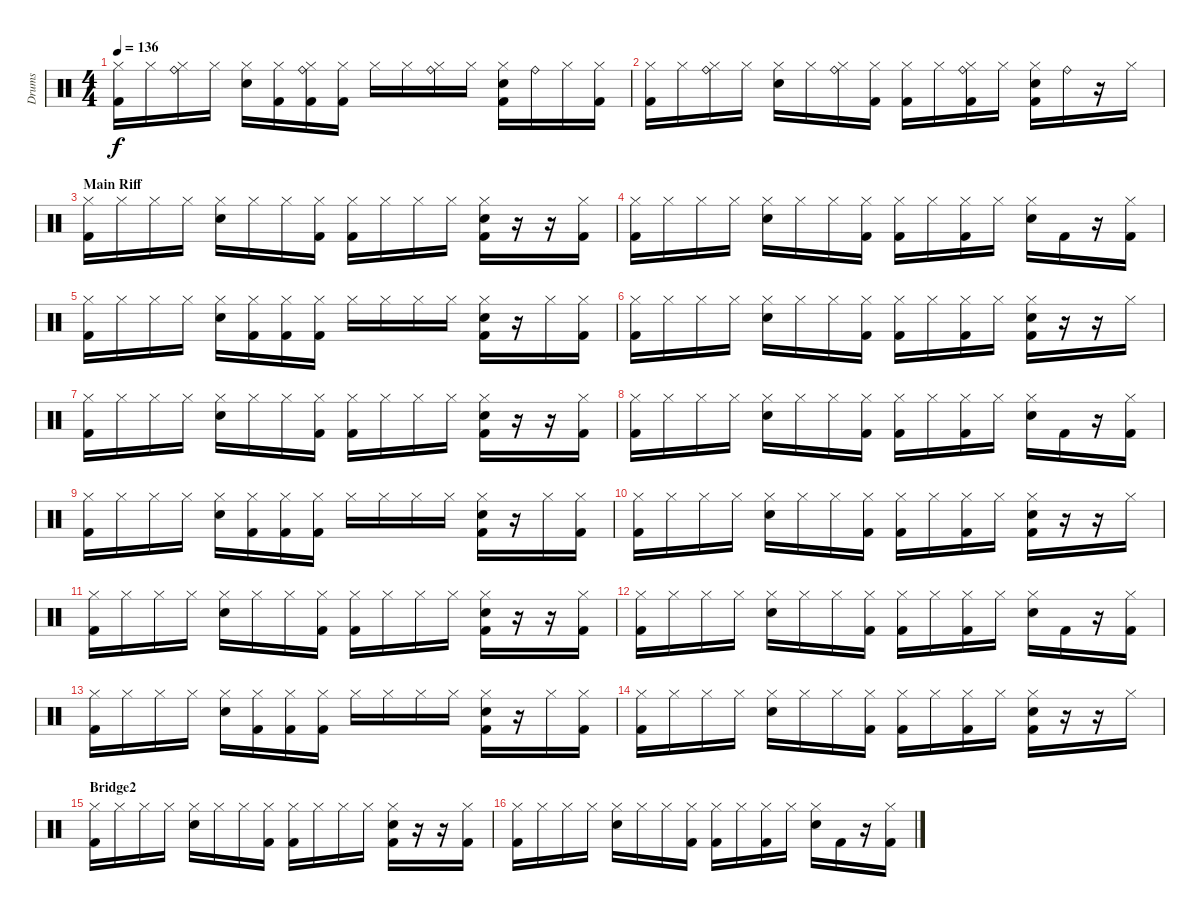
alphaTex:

\track ("Drums" "Drums") {instrument percussion}
\staff {score}
\articulation defaults
\ts (4 4)
\tempo 136
\clef neutral
\ks c
("Hi-Hat (closed)" "Kick (hit) 2").16{dy f} "Hi-Hat (closed)".16 ("Ride (bell)" "Hi-Hat (closed)").16 "Hi-Hat (closed)".16 ("Electric Snare (hit)" "Hi-Hat (closed)").16 ("Hi-Hat (closed)" "Kick (hit) 2").16 ("Ride (bell)" "Hi-Hat (closed)" "Kick (hit) 2").16 ("Hi-Hat (closed)" "Kick (hit) 2").16 "Hi-Hat (closed)".16 "Hi-Hat (closed)".16 ("Ride (bell)" "Hi-Hat (closed)").16 "Hi-Hat (closed)".16 ("Electric Snare (hit)" "Hi-Hat (closed)" "Kick (hit) 2").16 "Ride (bell)".16 "Hi-Hat (closed)".16 ("Hi-Hat (closed)" "Kick (hit) 2").16 |
("Hi-Hat (closed)" "Kick (hit) 2").16 "Hi-Hat (closed)".16 ("Ride (bell)" "Hi-Hat (closed)").16 "Hi-Hat (closed)".16 ("Electric Snare (hit)" "Hi-Hat (closed)").16 "Hi-Hat (closed)".16 ("Ride (bell)" "Hi-Hat (closed)").16 ("Hi-Hat (closed)" "Kick (hit) 2").16 ("Hi-Hat (closed)" "Kick (hit) 2").16 "Hi-Hat (closed)".16 ("Ride (bell)" "Hi-Hat (closed)" "Kick (hit) 2").16 "Hi-Hat (closed)".16 ("Electric Snare (hit)" "Hi-Hat (closed)" "Kick (hit) 2").16 "Ride (bell)".16 r.16 "Hi-Hat (closed)".16 |
\section ("" "Main Riff")
("Hi-Hat (closed)" "Kick (hit) 2").16 "Hi-Hat (closed)".16 "Hi-Hat (closed)".16 "Hi-Hat (closed)".16 ("Electric Snare (hit)" "Hi-Hat (closed)").16 "Hi-Hat (closed)".16 "Hi-Hat (closed)".16 ("Hi-Hat (closed)" "Kick (hit) 2").16 ("Hi-Hat (closed)" "Kick (hit) 2").16 "Hi-Hat (closed)".16 "Hi-Hat (closed)".16 "Hi-Hat (closed)".16 ("Electric Snare (hit)" "Hi-Hat (closed)" "Kick (hit) 2").16 r.16 r.16 ("Hi-Hat (closed)" "Kick (hit) 2").16 |
("Hi-Hat (closed)" "Kick (hit) 2").16 "Hi-Hat (closed)".16 "Hi-Hat (closed)".16 "Hi-Hat (closed)".16 ("Electric Snare (hit)" "Hi-Hat (closed)").16 "Hi-Hat (closed)".16 "Hi-Hat (closed)".16 ("Hi-Hat (closed)" "Kick (hit) 2").16 ("Hi-Hat (closed)" "Kick (hit) 2").16 "Hi-Hat (closed)".16 ("Hi-Hat (closed)" "Kick (hit) 2").16 "Hi-Hat (closed)".16 ("Electric Snare (hit)" "Hi-Hat (closed)").16 "Kick (hit) 2".16 r.16 ("Hi-Hat (closed)" "Kick (hit) 2").16 |
("Hi-Hat (closed)" "Kick (hit) 2").16 "Hi-Hat (closed)".16 "Hi-Hat (closed)".16 "Hi-Hat (closed)".16 ("Electric Snare (hit)" "Hi-Hat (closed)").16 ("Hi-Hat (closed)" "Kick (hit) 2").16 ("Hi-Hat (closed)" "Kick (hit) 2").16 ("Hi-Hat (closed)" "Kick (hit) 2").16 "Hi-Hat (closed)".16 "Hi-Hat (closed)".16 "Hi-Hat (closed)".16 "Hi-Hat (closed)".16 ("Electric Snare (hit)" "Hi-Hat (closed)" "Kick (hit) 2").16 r.16 "Hi-Hat (closed)".16 ("Hi-Hat (closed)" "Kick (hit) 2").16 |
("Hi-Hat (closed)" "Kick (hit) 2").16 "Hi-Hat (closed)".16 "Hi-Hat (closed)".16 "Hi-Hat (closed)".16 ("Electric Snare (hit)" "Hi-Hat (closed)").16 "Hi-Hat (closed)".16 "Hi-Hat (closed)".16 ("Hi-Hat (closed)" "Kick (hit) 2").16 ("Hi-Hat (closed)" "Kick (hit) 2").16 "Hi-Hat (closed)".16 ("Hi-Hat (closed)" "Kick (hit) 2").16 "Hi-Hat (closed)".16 ("Electric Snare (hit)" "Hi-Hat (closed)" "Kick (hit) 2").16 r.16 r.16 "Hi-Hat (closed)".16 |
("Hi-Hat (closed)" "Kick (hit) 2").16 "Hi-Hat (closed)".16 "Hi-Hat (closed)".16 "Hi-Hat (closed)".16 ("Electric Snare (hit)" "Hi-Hat (closed)").16 "Hi-Hat (closed)".16 "Hi-Hat (closed)".16 ("Hi-Hat (closed)" "Kick (hit) 2").16 ("Hi-Hat (closed)" "Kick (hit) 2").16 "Hi-Hat (closed)".16 "Hi-Hat (closed)".16 "Hi-Hat (closed)".16 ("Electric Snare (hit)" "Hi-Hat (closed)" "Kick (hit) 2").16 r.16 r.16 ("Hi-Hat (closed)" "Kick (hit) 2").16 |
("Hi-Hat (closed)" "Kick (hit) 2").16 "Hi-Hat (closed)".16 "Hi-Hat (closed)".16 "Hi-Hat (closed)".16 ("Electric Snare (hit)" "Hi-Hat (closed)").16 "Hi-Hat (closed)".16 "Hi-Hat (closed)".16 ("Hi-Hat (closed)" "Kick (hit) 2").16 ("Hi-Hat (closed)" "Kick (hit) 2").16 "Hi-Hat (closed)".16 ("Hi-Hat (closed)" "Kick (hit) 2").16 "Hi-Hat (closed)".16 ("Electric Snare (hit)" "Hi-Hat (closed)").16 "Kick (hit) 2".16 r.16 ("Hi-Hat (closed)" "Kick (hit) 2").16 |
("Hi-Hat (closed)" "Kick (hit) 2").16 "Hi-Hat (closed)".16 "Hi-Hat (closed)".16 "Hi-Hat (closed)".16 ("Electric Snare (hit)" "Hi-Hat (closed)").16 ("Hi-Hat (closed)" "Kick (hit) 2").16 ("Hi-Hat (closed)" "Kick (hit) 2").16 ("Hi-Hat (closed)" "Kick (hit) 2").16 "Hi-Hat (closed)".16 "Hi-Hat (closed)".16 "Hi-Hat (closed)".16 "Hi-Hat (closed)".16 ("Electric Snare (hit)" "Hi-Hat (closed)" "Kick (hit) 2").16 r.16 "Hi-Hat (closed)".16 ("Hi-Hat (closed)" "Kick (hit) 2").16 |
("Hi-Hat (closed)" "Kick (hit) 2").16 "Hi-Hat (closed)".16 "Hi-Hat (closed)".16 "Hi-Hat (closed)".16 ("Electric Snare (hit)" "Hi-Hat (closed)").16 "Hi-Hat (closed)".16 "Hi-Hat (closed)".16 ("Hi-Hat (closed)" "Kick (hit) 2").16 ("Hi-Hat (closed)" "Kick (hit) 2").16 "Hi-Hat (closed)".16 ("Hi-Hat (closed)" "Kick (hit) 2").16 "Hi-Hat (closed)".16 ("Electric Snare (hit)" "Hi-Hat (closed)" "Kick (hit) 2").16 r.16 r.16 "Hi-Hat (closed)".16 |
("Hi-Hat (closed)" "Kick (hit) 2").16 "Hi-Hat (closed)".16 "Hi-Hat (closed)".16 "Hi-Hat (closed)".16 ("Electric Snare (hit)" "Hi-Hat (closed)").16 "Hi-Hat (closed)".16 "Hi-Hat (closed)".16 ("Hi-Hat (closed)" "Kick (hit) 2").16 ("Hi-Hat (closed)" "Kick (hit) 2").16 "Hi-Hat (closed)".16 "Hi-Hat (closed)".16 "Hi-Hat (closed)".16 ("Electric Snare (hit)" "Hi-Hat (closed)" "Kick (hit) 2").16 r.16 r.16 ("Hi-Hat (closed)" "Kick (hit) 2").16 |
("Hi-Hat (closed)" "Kick (hit) 2").16 "Hi-Hat (closed)".16 "Hi-Hat (closed)".16 "Hi-Hat (closed)".16 ("Electric Snare (hit)" "Hi-Hat (closed)").16 "Hi-Hat (closed)".16 "Hi-Hat (closed)".16 ("Hi-Hat (closed)" "Kick (hit) 2").16 ("Hi-Hat (closed)" "Kick (hit) 2").16 "Hi-Hat (closed)".16 ("Hi-Hat (closed)" "Kick (hit) 2").16 "Hi-Hat (closed)".16 ("Electric Snare (hit)" "Hi-Hat (closed)").16 "Kick (hit) 2".16 r.16 ("Hi-Hat (closed)" "Kick (hit) 2").16 |
("Hi-Hat (closed)" "Kick (hit) 2").16 "Hi-Hat (closed)".16 "Hi-Hat (closed)".16 "Hi-Hat (closed)".16 ("Electric Snare (hit)" "Hi-Hat (closed)").16 ("Hi-Hat (closed)" "Kick (hit) 2").16 ("Hi-Hat (closed)" "Kick (hit) 2").16 ("Hi-Hat (closed)" "Kick (hit) 2").16 "Hi-Hat (closed)".16 "Hi-Hat (closed)".16 "Hi-Hat (closed)".16 "Hi-Hat (closed)".16 ("Electric Snare (hit)" "Hi-Hat (closed)" "Kick (hit) 2").16 r.16 "Hi-Hat (closed)".16 ("Hi-Hat (closed)" "Kick (hit) 2").16 |
("Hi-Hat (closed)" "Kick (hit) 2").16 "Hi-Hat (closed)".16 "Hi-Hat (closed)".16 "Hi-Hat (closed)".16 ("Electric Snare (hit)" "Hi-Hat (closed)").16 "Hi-Hat (closed)".16 "Hi-Hat (closed)".16 ("Hi-Hat (closed)" "Kick (hit) 2").16 ("Hi-Hat (closed)" "Kick (hit) 2").16 "Hi-Hat (closed)".16 ("Hi-Hat (closed)" "Kick (hit) 2").16 "Hi-Hat (closed)".16 ("Electric Snare (hit)" "Hi-Hat (closed)" "Kick (hit) 2").16 r.16 r.16 "Hi-Hat (closed)".16 |
\section ("" "Bridge2")
("Hi-Hat (closed)" "Kick (hit) 2").16 "Hi-Hat (closed)".16 "Hi-Hat (closed)".16 "Hi-Hat (closed)".16 ("Electric Snare (hit)" "Hi-Hat (closed)").16 "Hi-Hat (closed)".16 "Hi-Hat (closed)".16 ("Hi-Hat (closed)" "Kick (hit) 2").16 ("Hi-Hat (closed)" "Kick (hit) 2").16 "Hi-Hat (closed)".16 "Hi-Hat (closed)".16 "Hi-Hat (closed)".16 ("Electric Snare (hit)" "Hi-Hat (closed)" "Kick (hit) 2").16 r.16 r.16 ("Hi-Hat (closed)" "Kick (hit) 2").16 |
("Hi-Hat (closed)" "Kick (hit) 2").16 "Hi-Hat (closed)".16 "Hi-Hat (closed)".16 "Hi-Hat (closed)".16 ("Electric Snare (hit)" "Hi-Hat (closed)").16 "Hi-Hat (closed)".16 "Hi-Hat (closed)".16 ("Hi-Hat (closed)" "Kick (hit) 2").16 ("Hi-Hat (closed)" "Kick (hit) 2").16 "Hi-Hat (closed)".16 ("Hi-Hat (closed)" "Kick (hit) 2").16 "Hi-Hat (closed)".16 ("Electric Snare (hit)" "Hi-Hat (closed)").16 "Kick (hit) 2".16 r.16 ("Hi-Hat (closed)" "Kick (hit) 2").16
